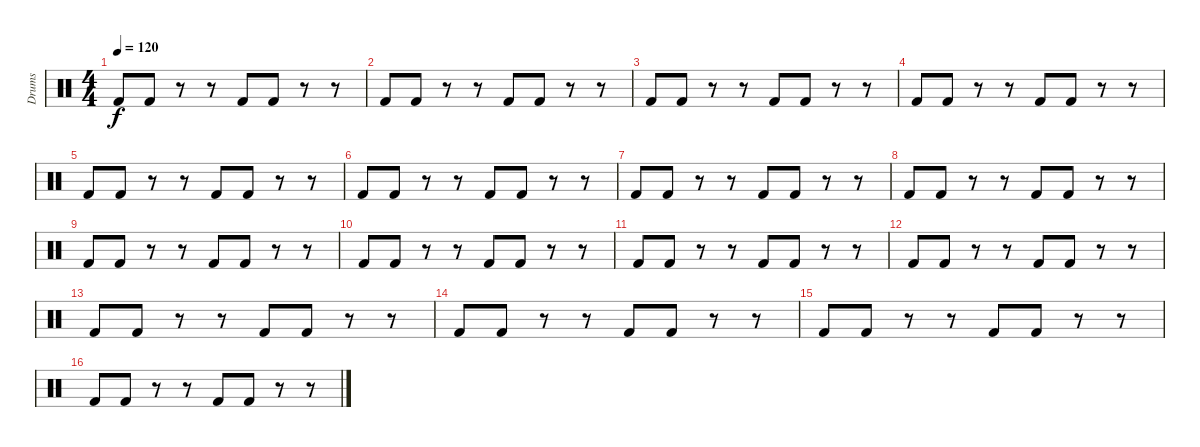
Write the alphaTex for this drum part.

\track ("Drums" "Drums") {instrument percussion}
\staff {score}
\articulation defaults
\ts (4 4)
\tempo 120
\clef neutral
\ks c "Kick (hit) 2".8{dy f} "Kick (hit) 2".8
r.8 r.8 "Kick (hit) 2".8 "Kick (hit) 2".8 r.8 r.8 |
"Kick (hit) 2".8 "Kick (hit) 2".8 r.8 r.8 "Kick (hit) 2".8 "Kick (hit) 2".8 r.8 r.8 |
"Kick (hit) 2".8 "Kick (hit) 2".8 r.8 r.8 "Kick (hit) 2".8 "Kick (hit) 2".8 r.8 r.8 |
"Kick (hit) 2".8 "Kick (hit) 2".8 r.8 r.8 "Kick (hit) 2".8 "Kick (hit) 2".8 r.8 r.8 |
"Kick (hit) 2".8 "Kick (hit) 2".8 r.8 r.8 "Kick (hit) 2".8 "Kick (hit) 2".8 r.8 r.8 |
"Kick (hit) 2".8 "Kick (hit) 2".8 r.8 r.8 "Kick (hit) 2".8 "Kick (hit) 2".8 r.8 r.8 |
"Kick (hit) 2".8 "Kick (hit) 2".8 r.8 r.8 "Kick (hit) 2".8 "Kick (hit) 2".8 r.8 r.8 |
"Kick (hit) 2".8 "Kick (hit) 2".8 r.8 r.8 "Kick (hit) 2".8 "Kick (hit) 2".8 r.8 r.8 |
"Kick (hit) 2".8 "Kick (hit) 2".8 r.8 r.8 "Kick (hit) 2".8 "Kick (hit) 2".8 r.8 r.8 |
"Kick (hit) 2".8 "Kick (hit) 2".8 r.8 r.8 "Kick (hit) 2".8 "Kick (hit) 2".8 r.8 r.8 |
"Kick (hit) 2".8 "Kick (hit) 2".8 r.8 r.8 "Kick (hit) 2".8 "Kick (hit) 2".8 r.8 r.8 |
"Kick (hit) 2".8 "Kick (hit) 2".8 r.8 r.8 "Kick (hit) 2".8 "Kick (hit) 2".8 r.8 r.8 |
"Kick (hit) 2".8 "Kick (hit) 2".8 r.8 r.8 "Kick (hit) 2".8 "Kick (hit) 2".8 r.8 r.8 |
"Kick (hit) 2".8 "Kick (hit) 2".8 r.8 r.8 "Kick (hit) 2".8 "Kick (hit) 2".8 r.8 r.8 |
"Kick (hit) 2".8 "Kick (hit) 2".8 r.8 r.8 "Kick (hit) 2".8 "Kick (hit) 2".8 r.8 r.8 |
"Kick (hit) 2".8 "Kick (hit) 2".8 r.8 r.8 "Kick (hit) 2".8 "Kick (hit) 2".8 r.8 r.8
